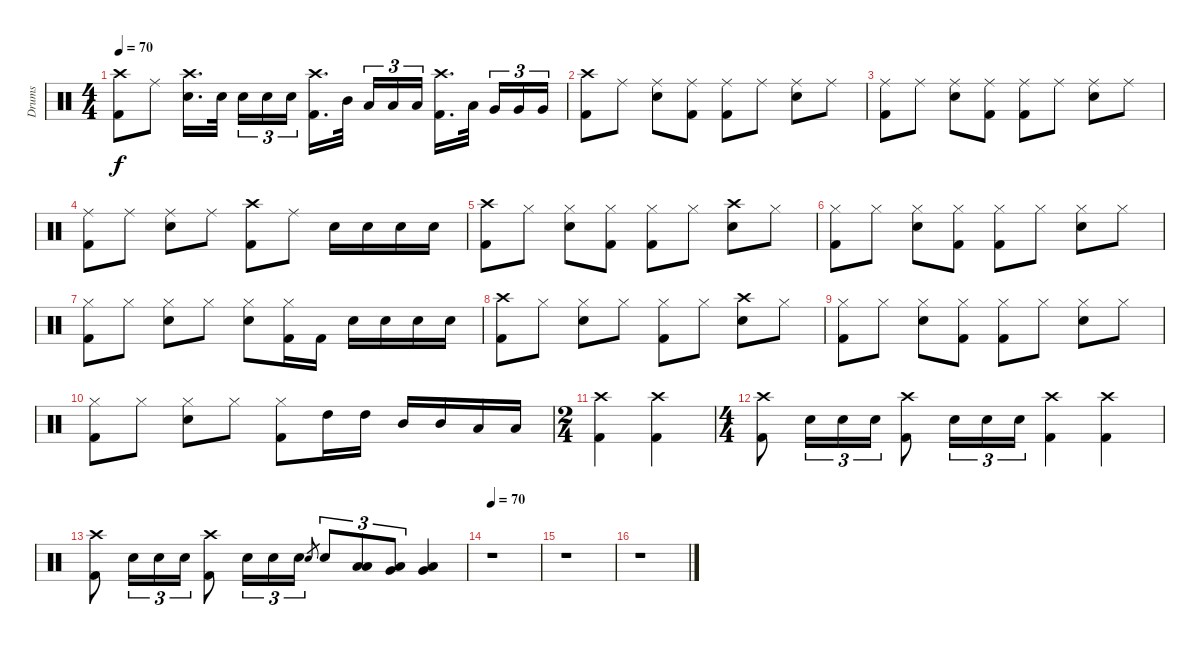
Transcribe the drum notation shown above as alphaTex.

\track ("Drums" "Drums") {instrument percussion}
\staff {score}
\articulation defaults
\ts (4 4)
\tempo 70
\clef neutral
\ks c
("Crash high (hit)" "Kick (hit) 2").8{dy f} "Ride (middle)".8 ("Crash high (hit)" "Electric Snare (hit)").16{d} "Electric Snare (hit)".32 "Electric Snare (hit)".16{tu (3 2)} "Electric Snare (hit)".16{tu (3 2)} "Electric Snare (hit)".16{tu (3 2)} ("Crash high (hit)" "Kick (hit) 2").16{d} "Mid Tom (hit)".32 "Low Tom (hit)".16{tu (3 2)} "Low Tom (hit)".16{tu (3 2)} "Low Tom (hit)".16{tu (3 2)} ("Crash high (hit)" "Kick (hit) 2").16{d} "Low Tom (hit)".32 "Very Low Tom (hit)".16{tu (3 2)} "Very Low Tom (hit)".16{tu (3 2)} "Very Low Tom (hit)".16{tu (3 2)} |
("Crash high (hit)" "Kick (hit) 2").8 "Ride (middle)".8 ("Ride (middle)" "Electric Snare (hit)").8 ("Ride (middle)" "Kick (hit) 2").8 ("Ride (middle)" "Kick (hit) 2").8 "Ride (middle)".8 ("Ride (middle)" "Electric Snare (hit)").8 "Ride (middle)".8 |
("Ride (middle)" "Kick (hit) 2").8 "Ride (middle)".8 ("Ride (middle)" "Electric Snare (hit)").8 ("Ride (middle)" "Kick (hit) 2").8 ("Ride (middle)" "Kick (hit) 2").8 "Ride (middle)".8 ("Ride (middle)" "Electric Snare (hit)").8 "Ride (middle)".8 |
("Ride (middle)" "Kick (hit) 2").8 "Ride (middle)".8 ("Ride (middle)" "Electric Snare (hit)").8 "Ride (middle)".8 ("Crash high (hit)" "Kick (hit) 2").8 "Ride (middle)".8 "Electric Snare (hit)".16 "Electric Snare (hit)".16 "Electric Snare (hit)".16 "Electric Snare (hit)".16 |
("Crash high (hit)" "Kick (hit) 2").8 "Hi-Hat (closed)".8 ("Hi-Hat (closed)" "Electric Snare (hit)").8 ("Hi-Hat (closed)" "Kick (hit) 2").8 ("Hi-Hat (closed)" "Kick (hit) 2").8 "Hi-Hat (closed)".8 ("Crash high (hit)" "Electric Snare (hit)").8 "Hi-Hat (closed)".8 |
("Hi-Hat (closed)" "Kick (hit) 2").8 "Hi-Hat (closed)".8 ("Hi-Hat (closed)" "Electric Snare (hit)").8 ("Hi-Hat (closed)" "Kick (hit) 2").8 ("Hi-Hat (closed)" "Kick (hit) 2").8 "Hi-Hat (closed)".8 ("Hi-Hat (closed)" "Electric Snare (hit)").8 "Hi-Hat (closed)".8 |
("Hi-Hat (closed)" "Kick (hit) 2").8 "Hi-Hat (closed)".8 ("Hi-Hat (closed)" "Electric Snare (hit)").8 "Hi-Hat (closed)".8 ("Hi-Hat (closed)" "Electric Snare (hit)").8 ("Hi-Hat (closed)" "Kick (hit) 2").16 "Kick (hit) 2".16 "Electric Snare (hit)".16 "Electric Snare (hit)".16 "Electric Snare (hit)".16 "Electric Snare (hit)".16 |
("Crash high (hit)" "Kick (hit) 2").8 "Hi-Hat (closed)".8 ("Hi-Hat (closed)" "Electric Snare (hit)").8 "Hi-Hat (closed)".8 ("Hi-Hat (closed)" "Kick (hit) 2").8 "Hi-Hat (closed)".8 ("Crash high (hit)" "Electric Snare (hit)").8 "Hi-Hat (closed)".8 |
("Hi-Hat (closed)" "Kick (hit) 2").8 "Hi-Hat (closed)".8 ("Hi-Hat (closed)" "Electric Snare (hit)").8 ("Hi-Hat (closed)" "Kick (hit) 2").8 ("Hi-Hat (closed)" "Kick (hit) 2").8 "Hi-Hat (closed)".8 ("Hi-Hat (closed)" "Electric Snare (hit)").8 "Hi-Hat (closed)".8 |
("Hi-Hat (closed)" "Kick (hit) 2").8 "Hi-Hat (closed)".8 ("Hi-Hat (closed)" "Electric Snare (hit)").8 "Hi-Hat (closed)".8 ("Hi-Hat (closed)" "Kick (hit) 2").8 "High Tom (hit)".16 "High Tom (hit)".16 "Mid Tom (hit)".16 "Mid Tom (hit)".16 "Low Tom (hit)".16 "Low Tom (hit)".16 |
\ts (2 4)
("Crash high (hit)" "Kick (hit) 2").4 ("Crash high (hit)" "Kick (hit) 2").4 |
\ts (4 4)
("Crash high (hit)" "Kick (hit) 2").8 "Electric Snare (hit)".16{tu (3 2)} "Electric Snare (hit)".16{tu (3 2)} "Electric Snare (hit)".16{tu (3 2)} ("Crash high (hit)" "Kick (hit) 2").8 "Electric Snare (hit)".16{tu (3 2)} "Electric Snare (hit)".16{tu (3 2)} "Electric Snare (hit)".16{tu (3 2)} ("Crash high (hit)" "Kick (hit) 2").4 ("Crash high (hit)" "Kick (hit) 2").4 |
("Crash high (hit)" "Kick (hit) 2").8 "Electric Snare (hit)".16{tu (3 2)} "Electric Snare (hit)".16{tu (3 2)} "Electric Snare (hit)".16{tu (3 2)} ("Crash high (hit)" "Kick (hit) 2").8 "Electric Snare (hit)".16{tu (3 2)} "Electric Snare (hit)".16{tu (3 2)} "Electric Snare (hit)".16{tu (3 2)} "Electric Snare (hit)".8{gr} "Electric Snare (hit)".8{tu (3 2)} ("Low Tom (hit)" "Low Tom (hit)").8{tu (3 2)} ("Low Tom (hit)" "Very Low Tom (hit)").8{tu (3 2)} ("Low Tom (hit)" "Very Low Tom (hit)").4 |
\tempo 70
r.1 |
r.1 |
r.1
